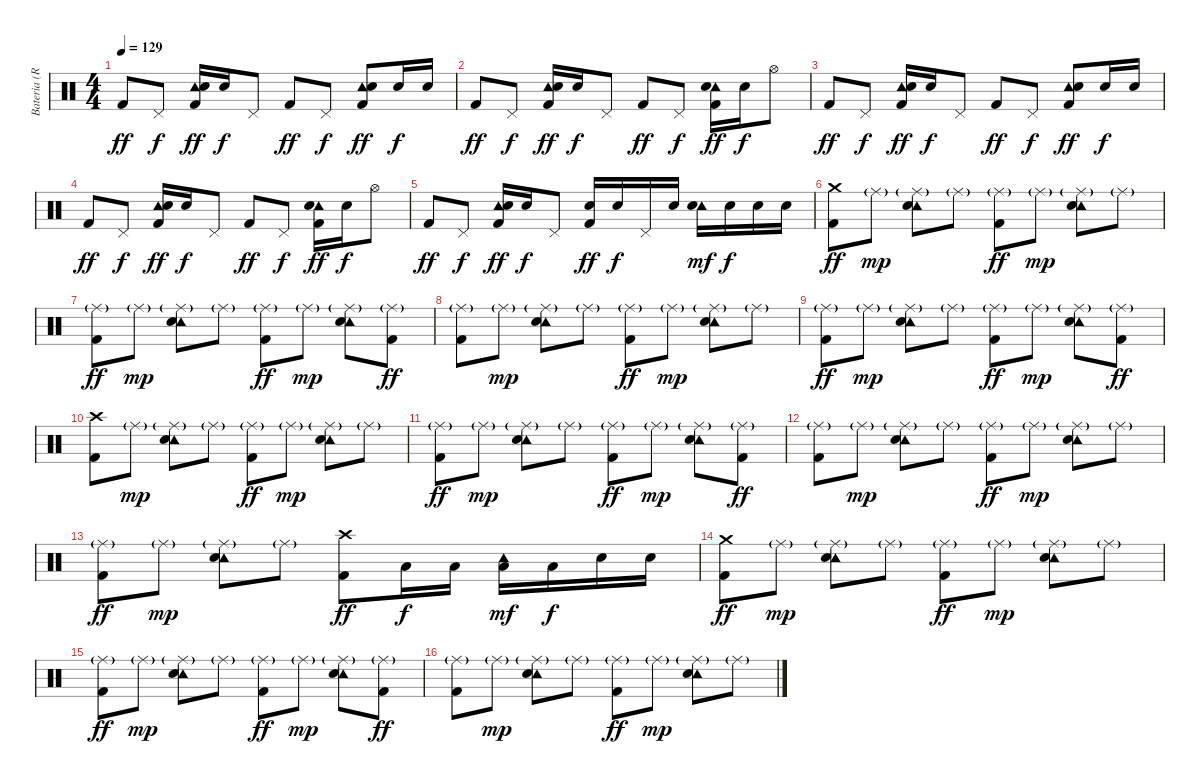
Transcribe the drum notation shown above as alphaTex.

\track ("Bateria (Roy)" "Bateria (R") {instrument percussion}
\staff {score}
\articulation defaults
\ts (4 4)
\tempo 129
\clef neutral
\ks c "Kick (hit) 2".8{dy ff} "Pedal Hi-Hat (hit)".8{dy f}
("Tambourine (hit)" "Electric Snare (hit)" "Kick (hit) 2").16{dy ff} "Electric Snare (hit)".16{dy f} "Pedal Hi-Hat (hit)".8 "Kick (hit) 2".8{dy ff} "Pedal Hi-Hat (hit)".8{dy f} ("Tambourine (hit)" "Electric Snare (hit)" "Kick (hit) 2").8{dy ff} "Electric Snare (hit)".16{dy f} "Electric Snare (hit)".16 |
"Kick (hit) 2".8{dy ff} "Pedal Hi-Hat (hit)".8{dy f} ("Tambourine (hit)" "Electric Snare (hit)" "Kick (hit) 2").16{dy ff} "Electric Snare (hit)".16{dy f} "Pedal Hi-Hat (hit)".8 "Kick (hit) 2".8{dy ff} "Pedal Hi-Hat (hit)".8{dy f} ("Tambourine (hit)" "Electric Snare (hit)" "Kick (hit) 2").16{dy ff} "Electric Snare (hit)".16{dy f} "Hi-Hat (open)".8 |
"Kick (hit) 2".8{dy ff} "Pedal Hi-Hat (hit)".8{dy f} ("Tambourine (hit)" "Electric Snare (hit)" "Kick (hit) 2").16{dy ff} "Electric Snare (hit)".16{dy f} "Pedal Hi-Hat (hit)".8 "Kick (hit) 2".8{dy ff} "Pedal Hi-Hat (hit)".8{dy f} ("Tambourine (hit)" "Electric Snare (hit)" "Kick (hit) 2").8{dy ff} "Electric Snare (hit)".16{dy f} "Electric Snare (hit)".16 |
"Kick (hit) 2".8{dy ff} "Pedal Hi-Hat (hit)".8{dy f} ("Tambourine (hit)" "Electric Snare (hit)" "Kick (hit) 2").16{dy ff} "Electric Snare (hit)".16{dy f} "Pedal Hi-Hat (hit)".8 "Kick (hit) 2".8{dy ff} "Pedal Hi-Hat (hit)".8{dy f} ("Tambourine (hit)" "Electric Snare (hit)" "Kick (hit) 2").16{dy ff} "Electric Snare (hit)".16{dy f} "Hi-Hat (open)".8 |
"Kick (hit) 2".8{dy ff} "Pedal Hi-Hat (hit)".8{dy f} ("Tambourine (hit)" "Electric Snare (hit)" "Kick (hit) 2").16{dy ff} "Electric Snare (hit)".16{dy f} "Pedal Hi-Hat (hit)".8 ("Electric Snare (hit)" "Kick (hit) 2").16{dy ff} "Electric Snare (hit)".16{dy f} "Pedal Hi-Hat (hit)".16 "Electric Snare (hit)".16 ("Tambourine (hit)" "Electric Snare (hit)").16{dy mf} "Electric Snare (hit)".16{dy f} "Electric Snare (hit)".16 "Electric Snare (hit)".16 |
("Crash medium (hit)" "Kick (hit) 2").8{dy ff} "Ride (middle)"{g}.8{dy mp} ("Ride (middle)"{g} "Tambourine (hit)" "Electric Snare (hit)").8 "Ride (middle)"{g}.8 ("Ride (middle)"{g} "Kick (hit) 2").8{dy ff} "Ride (middle)"{g}.8{dy mp} ("Ride (middle)"{g} "Tambourine (hit)" "Electric Snare (hit)").8 "Ride (middle)"{g}.8 |
("Ride (middle)"{g} "Kick (hit) 2").8{dy ff} "Ride (middle)"{g}.8{dy mp} ("Ride (middle)"{g} "Tambourine (hit)" "Electric Snare (hit)").8 "Ride (middle)"{g}.8 ("Ride (middle)"{g} "Kick (hit) 2").8{dy ff} "Ride (middle)"{g}.8{dy mp} ("Ride (middle)"{g} "Tambourine (hit)" "Electric Snare (hit)").8 ("Ride (middle)"{g} "Kick (hit) 2").8{dy ff} |
("Ride (middle)"{g} "Kick (hit) 2").8 "Ride (middle)"{g}.8{dy mp} ("Ride (middle)"{g} "Tambourine (hit)" "Electric Snare (hit)").8 "Ride (middle)"{g}.8 ("Ride (middle)"{g} "Kick (hit) 2").8{dy ff} "Ride (middle)"{g}.8{dy mp} ("Ride (middle)"{g} "Tambourine (hit)" "Electric Snare (hit)").8 "Ride (middle)"{g}.8 |
("Ride (middle)"{g} "Kick (hit) 2").8{dy ff} "Ride (middle)"{g}.8{dy mp} ("Ride (middle)"{g} "Tambourine (hit)" "Electric Snare (hit)").8 "Ride (middle)"{g}.8 ("Ride (middle)"{g} "Kick (hit) 2").8{dy ff} "Ride (middle)"{g}.8{dy mp} ("Ride (middle)"{g} "Tambourine (hit)" "Electric Snare (hit)").8 ("Ride (middle)"{g} "Kick (hit) 2").8{dy ff} |
("Crash high (hit)" "Kick (hit) 2").8 "Ride (middle)"{g}.8{dy mp} ("Ride (middle)"{g} "Tambourine (hit)" "Electric Snare (hit)").8 "Ride (middle)"{g}.8 ("Ride (middle)"{g} "Kick (hit) 2").8{dy ff} "Ride (middle)"{g}.8{dy mp} ("Ride (middle)"{g} "Tambourine (hit)" "Electric Snare (hit)").8 "Ride (middle)"{g}.8 |
("Ride (middle)"{g} "Kick (hit) 2").8{dy ff} "Ride (middle)"{g}.8{dy mp} ("Ride (middle)"{g} "Tambourine (hit)" "Electric Snare (hit)").8 "Ride (middle)"{g}.8 ("Ride (middle)"{g} "Kick (hit) 2").8{dy ff} "Ride (middle)"{g}.8{dy mp} ("Ride (middle)"{g} "Tambourine (hit)" "Electric Snare (hit)").8 ("Ride (middle)"{g} "Kick (hit) 2").8{dy ff} |
("Ride (middle)"{g} "Kick (hit) 2").8 "Ride (middle)"{g}.8{dy mp} ("Ride (middle)"{g} "Tambourine (hit)" "Electric Snare (hit)").8 "Ride (middle)"{g}.8 ("Ride (middle)"{g} "Kick (hit) 2").8{dy ff} "Ride (middle)"{g}.8{dy mp} ("Ride (middle)"{g} "Tambourine (hit)" "Electric Snare (hit)").8 "Ride (middle)"{g}.8 |
("Ride (middle)"{g} "Kick (hit) 2").8{dy ff} "Ride (middle)"{g}.8{dy mp} ("Ride (middle)"{g} "Tambourine (hit)" "Electric Snare (hit)").8 "Ride (middle)"{g}.8 ("Crash high (hit)" "Kick (hit) 2").8{dy ff} "Low Tom (hit)".16{dy f} "Low Tom (hit)".16 ("Tambourine (hit)" "Low Tom (hit)").16{dy mf} "Low Tom (hit)".16{dy f} "Electric Snare (hit)".16 "Electric Snare (hit)".16 |
("Crash medium (hit)" "Kick (hit) 2").8{dy ff} "Ride (middle)"{g}.8{dy mp} ("Ride (middle)"{g} "Tambourine (hit)" "Electric Snare (hit)").8 "Ride (middle)"{g}.8 ("Ride (middle)"{g} "Kick (hit) 2").8{dy ff} "Ride (middle)"{g}.8{dy mp} ("Ride (middle)"{g} "Tambourine (hit)" "Electric Snare (hit)").8 "Ride (middle)"{g}.8 |
("Ride (middle)"{g} "Kick (hit) 2").8{dy ff} "Ride (middle)"{g}.8{dy mp} ("Ride (middle)"{g} "Tambourine (hit)" "Electric Snare (hit)").8 "Ride (middle)"{g}.8 ("Ride (middle)"{g} "Kick (hit) 2").8{dy ff} "Ride (middle)"{g}.8{dy mp} ("Ride (middle)"{g} "Tambourine (hit)" "Electric Snare (hit)").8 ("Ride (middle)"{g} "Kick (hit) 2").8{dy ff} |
("Ride (middle)"{g} "Kick (hit) 2").8 "Ride (middle)"{g}.8{dy mp} ("Ride (middle)"{g} "Tambourine (hit)" "Electric Snare (hit)").8 "Ride (middle)"{g}.8 ("Ride (middle)"{g} "Kick (hit) 2").8{dy ff} "Ride (middle)"{g}.8{dy mp} ("Ride (middle)"{g} "Tambourine (hit)" "Electric Snare (hit)").8 "Ride (middle)"{g}.8
